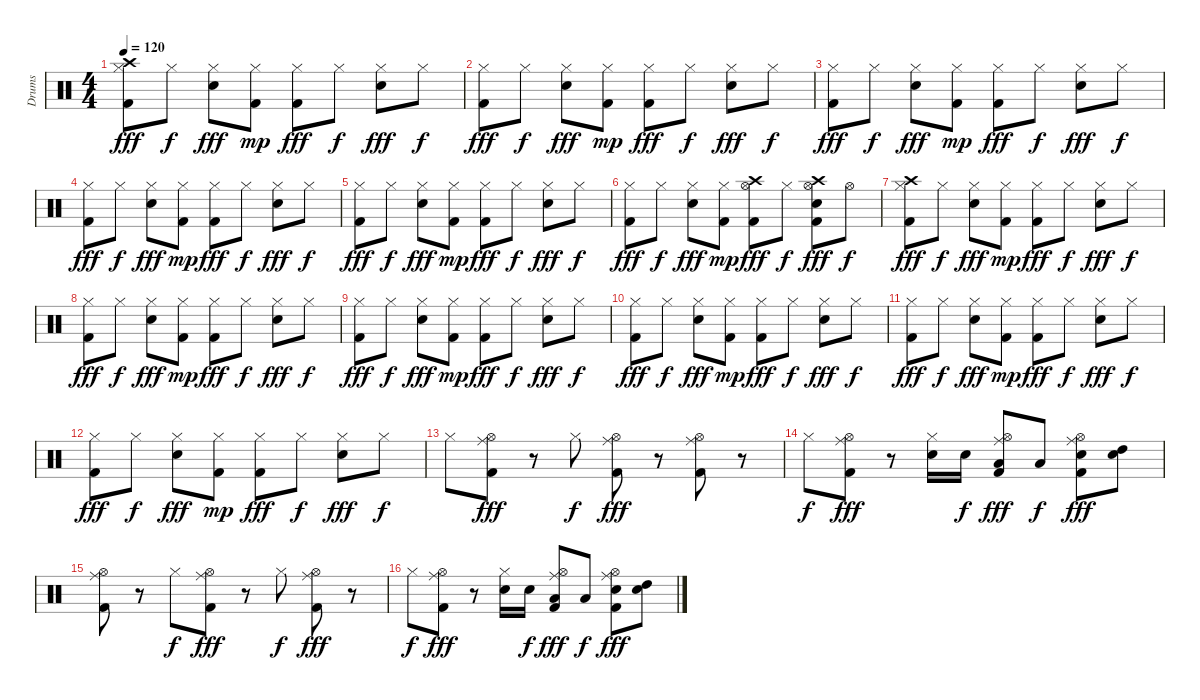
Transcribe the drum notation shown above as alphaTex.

\track ("Drums" "Drums") {instrument percussion}
\staff {score}
\articulation defaults
\ts (4 4)
\tempo 120
\clef neutral
\ks c
("Crash high (hit)" "Hi-Hat (closed)" "Kick (hit) 2").8{dy fff} "Hi-Hat (closed)".8{dy f} ("Hi-Hat (closed)" "Snare (hit) 2").8{dy fff} ("Hi-Hat (closed)" "Kick (hit) 2").8{dy mp} ("Hi-Hat (closed)" "Kick (hit) 2").8{dy fff} "Hi-Hat (closed)".8{dy f} ("Hi-Hat (closed)" "Snare (hit) 2").8{dy fff} "Hi-Hat (closed)".8{dy f} |
("Hi-Hat (closed)" "Kick (hit) 2").8{dy fff} "Hi-Hat (closed)".8{dy f} ("Hi-Hat (closed)" "Snare (hit) 2").8{dy fff} ("Hi-Hat (closed)" "Kick (hit) 2").8{dy mp} ("Hi-Hat (closed)" "Kick (hit) 2").8{dy fff} "Hi-Hat (closed)".8{dy f} ("Hi-Hat (closed)" "Snare (hit) 2").8{dy fff} "Hi-Hat (closed)".8{dy f} |
("Hi-Hat (closed)" "Kick (hit) 2").8{dy fff} "Hi-Hat (closed)".8{dy f} ("Hi-Hat (closed)" "Snare (hit) 2").8{dy fff} ("Hi-Hat (closed)" "Kick (hit) 2").8{dy mp} ("Hi-Hat (closed)" "Kick (hit) 2").8{dy fff} "Hi-Hat (closed)".8{dy f} ("Hi-Hat (closed)" "Snare (hit) 2").8{dy fff} "Hi-Hat (closed)".8{dy f} |
("Hi-Hat (closed)" "Kick (hit) 2").8{dy fff} "Hi-Hat (closed)".8{dy f} ("Hi-Hat (closed)" "Snare (hit) 2").8{dy fff} ("Hi-Hat (closed)" "Kick (hit) 2").8{dy mp} ("Hi-Hat (closed)" "Kick (hit) 2").8{dy fff} "Hi-Hat (closed)".8{dy f} ("Hi-Hat (closed)" "Snare (hit) 2").8{dy fff} "Hi-Hat (closed)".8{dy f} |
("Hi-Hat (closed)" "Kick (hit) 2").8{dy fff} "Hi-Hat (closed)".8{dy f} ("Hi-Hat (closed)" "Snare (hit) 2").8{dy fff} ("Hi-Hat (closed)" "Kick (hit) 2").8{dy mp} ("Hi-Hat (closed)" "Kick (hit) 2").8{dy fff} "Hi-Hat (closed)".8{dy f} ("Hi-Hat (closed)" "Snare (hit) 2").8{dy fff} "Hi-Hat (closed)".8{dy f} |
("Hi-Hat (closed)" "Kick (hit) 2").8{dy fff} "Hi-Hat (closed)".8{dy f} ("Hi-Hat (closed)" "Snare (hit) 2").8{dy fff} ("Hi-Hat (closed)" "Kick (hit) 2").8{dy mp} ("Crash high (hit)" "Hi-Hat (open)" "Kick (hit) 2").8{dy fff} "Hi-Hat (closed)".8{dy f} ("Crash high (hit)" "Hi-Hat (open)" "Snare (hit) 2" "Kick (hit) 2").8{dy fff} "Hi-Hat (open)".8{dy f} |
("Crash high (hit)" "Hi-Hat (closed)" "Kick (hit) 2").8{dy fff} "Hi-Hat (closed)".8{dy f} ("Hi-Hat (closed)" "Snare (hit) 2").8{dy fff} ("Hi-Hat (closed)" "Kick (hit) 2").8{dy mp} ("Hi-Hat (closed)" "Kick (hit) 2").8{dy fff} "Hi-Hat (closed)".8{dy f} ("Hi-Hat (closed)" "Snare (hit) 2").8{dy fff} "Hi-Hat (closed)".8{dy f} |
("Hi-Hat (closed)" "Kick (hit) 2").8{dy fff} "Hi-Hat (closed)".8{dy f} ("Hi-Hat (closed)" "Snare (hit) 2").8{dy fff} ("Hi-Hat (closed)" "Kick (hit) 2").8{dy mp} ("Hi-Hat (closed)" "Kick (hit) 2").8{dy fff} "Hi-Hat (closed)".8{dy f} ("Hi-Hat (closed)" "Snare (hit) 2").8{dy fff} "Hi-Hat (closed)".8{dy f} |
("Hi-Hat (closed)" "Kick (hit) 2").8{dy fff} "Hi-Hat (closed)".8{dy f} ("Hi-Hat (closed)" "Snare (hit) 2").8{dy fff} ("Hi-Hat (closed)" "Kick (hit) 2").8{dy mp} ("Hi-Hat (closed)" "Kick (hit) 2").8{dy fff} "Hi-Hat (closed)".8{dy f} ("Hi-Hat (closed)" "Snare (hit) 2").8{dy fff} "Hi-Hat (closed)".8{dy f} |
("Hi-Hat (closed)" "Kick (hit) 2").8{dy fff} "Hi-Hat (closed)".8{dy f} ("Hi-Hat (closed)" "Snare (hit) 2").8{dy fff} ("Hi-Hat (closed)" "Kick (hit) 2").8{dy mp} ("Hi-Hat (closed)" "Kick (hit) 2").8{dy fff} "Hi-Hat (closed)".8{dy f} ("Hi-Hat (closed)" "Snare (hit) 2").8{dy fff} "Hi-Hat (closed)".8{dy f} |
("Hi-Hat (closed)" "Kick (hit) 2").8{dy fff} "Hi-Hat (closed)".8{dy f} ("Hi-Hat (closed)" "Snare (hit) 2").8{dy fff} ("Hi-Hat (closed)" "Kick (hit) 2").8{dy mp} ("Hi-Hat (closed)" "Kick (hit) 2").8{dy fff} "Hi-Hat (closed)".8{dy f} ("Hi-Hat (closed)" "Snare (hit) 2").8{dy fff} "Hi-Hat (closed)".8{dy f} |
("Hi-Hat (closed)" "Kick (hit) 2").8{dy fff} "Hi-Hat (closed)".8{dy f} ("Hi-Hat (closed)" "Snare (hit) 2").8{dy fff} ("Hi-Hat (closed)" "Kick (hit) 2").8{dy mp} ("Hi-Hat (closed)" "Kick (hit) 2").8{dy fff} "Hi-Hat (closed)".8{dy f} ("Hi-Hat (closed)" "Snare (hit) 2").8{dy fff} "Hi-Hat (closed)".8{dy f} |
"Hi-Hat (closed)".8 ("Ride (middle)" "Hi-Hat (open)" "Kick (hit) 2").8{dy fff} r.8 "Hi-Hat (closed)".8{dy f} ("Ride (middle)" "Hi-Hat (open)" "Kick (hit) 2").8{dy fff} r.8 ("Ride (middle)" "Hi-Hat (open)" "Kick (hit) 2").8 r.8 |
"Hi-Hat (closed)".8{dy f} ("Ride (middle)" "Hi-Hat (open)" "Kick (hit) 2").8{dy fff} r.8 ("Hi-Hat (closed)" "Snare (hit) 2").16 "Snare (hit) 2".16{dy f} ("Ride (middle)" "Hi-Hat (open)" "Low Floor Tom (hit)" "Kick (hit) 2").8{dy fff} "Low Tom (hit)".8{dy f} ("Ride (middle)" "Hi-Hat (open)" "Snare (hit) 2" "Kick (hit) 2").8{dy fff} ("High Tom (hit)" "Snare (hit) 2").8 |
("Ride (middle)" "Hi-Hat (open)" "Kick (hit) 2").8 r.8 "Hi-Hat (closed)".8{dy f} ("Ride (middle)" "Hi-Hat (open)" "Kick (hit) 2").8{dy fff} r.8 "Hi-Hat (closed)".8{dy f} ("Ride (middle)" "Hi-Hat (open)" "Kick (hit) 2").8{dy fff} r.8 |
"Hi-Hat (closed)".8{dy f} ("Ride (middle)" "Hi-Hat (open)" "Kick (hit) 2").8{dy fff} r.8 ("Hi-Hat (closed)" "Snare (hit) 2").16 "Snare (hit) 2".16{dy f} ("Ride (middle)" "Hi-Hat (open)" "Low Floor Tom (hit)" "Kick (hit) 2").8{dy fff} "Low Tom (hit)".8{dy f} ("Ride (middle)" "Hi-Hat (open)" "Snare (hit) 2" "Kick (hit) 2").8{dy fff} ("High Tom (hit)" "Snare (hit) 2").8
